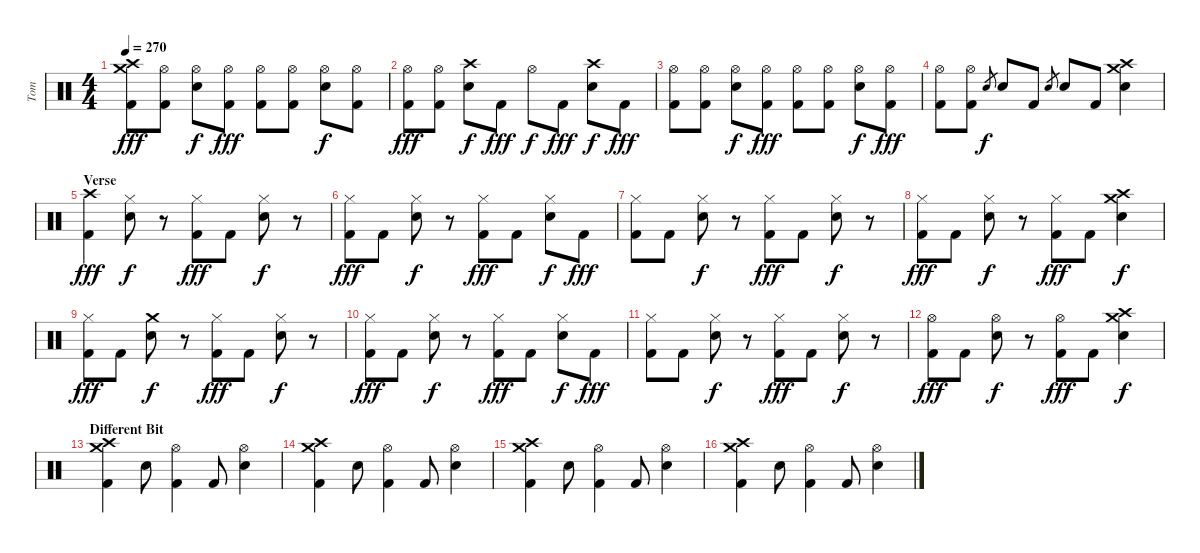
\track ("Tom" "Tom") {instrument percussion}
\staff {score}
\articulation defaults
\ts (4 4)
\tempo 270
\clef neutral
\ks c
("Kick (hit) 2" "Crash medium (hit)" "Crash high (hit)").8{dy fff} ("Kick (hit) 2" "Hi-Hat (open)").8 ("Electric Snare (hit)" "Hi-Hat (open)").8{dy f} ("Kick (hit) 2" "Hi-Hat (open)").8{dy fff} ("Kick (hit) 2" "Hi-Hat (open)").8 ("Kick (hit) 2" "Hi-Hat (open)").8 ("Electric Snare (hit)" "Hi-Hat (open)").8{dy f} ("Kick (hit) 2" "Hi-Hat (open)").8 |
("Kick (hit) 2" "Hi-Hat (open)").8{dy fff} ("Kick (hit) 2" "Hi-Hat (open)").8 ("Electric Snare (hit)" "Crash high (hit)").8{dy f} "Kick (hit) 2".8{dy fff} "Hi-Hat (open)".8{dy f} "Kick (hit) 2".8{dy fff} ("Electric Snare (hit)" "Crash high (hit)").8{dy f} "Kick (hit) 2".8{dy fff} |
("Kick (hit) 2" "Hi-Hat (open)").8 ("Kick (hit) 2" "Hi-Hat (open)").8 ("Electric Snare (hit)" "Hi-Hat (open)").8{dy f} ("Kick (hit) 2" "Hi-Hat (open)").8{dy fff} ("Kick (hit) 2" "Hi-Hat (open)").8 ("Kick (hit) 2" "Hi-Hat (open)").8 ("Electric Snare (hit)" "Hi-Hat (open)").8{dy f} ("Kick (hit) 2" "Hi-Hat (open)").8{dy fff} |
("Kick (hit) 2" "Hi-Hat (open)").8 ("Kick (hit) 2" "Hi-Hat (open)").8 "Electric Snare (hit)".8{gr dy f} "Electric Snare (hit)".8 "Kick (hit) 2".8 "Electric Snare (hit)".8{gr} "Electric Snare (hit)".8 "Kick (hit) 2".8 ("Electric Snare (hit)" "Crash high (hit)" "Crash medium (hit)").4 |
\section ("" "Verse")
("Crash high (hit)" "Kick (hit) 2").4{dy fff} ("Electric Snare (hit)" "Hi-Hat (closed)").8{dy f} r.8 ("Kick (hit) 2" "Hi-Hat (closed)").8{dy fff} "Kick (hit) 2".8 ("Electric Snare (hit)" "Hi-Hat (closed)").8{dy f} r.8 |
("Kick (hit) 2" "Hi-Hat (closed)").8{dy fff} "Kick (hit) 2".8 ("Electric Snare (hit)" "Hi-Hat (closed)").8{dy f} r.8 ("Kick (hit) 2" "Hi-Hat (closed)").8{dy fff} "Kick (hit) 2".8 ("Electric Snare (hit)" "Hi-Hat (closed)").8{dy f} "Kick (hit) 2".8{dy fff} |
("Kick (hit) 2" "Hi-Hat (closed)").8 "Kick (hit) 2".8 ("Electric Snare (hit)" "Hi-Hat (closed)").8{dy f} r.8 ("Kick (hit) 2" "Hi-Hat (closed)").8{dy fff} "Kick (hit) 2".8 ("Electric Snare (hit)" "Hi-Hat (closed)").8{dy f} r.8 |
("Kick (hit) 2" "Hi-Hat (closed)").8{dy fff} "Kick (hit) 2".8 ("Electric Snare (hit)" "Hi-Hat (closed)").8{dy f} r.8 ("Kick (hit) 2" "Hi-Hat (closed)").8{dy fff} "Kick (hit) 2".8 ("Electric Snare (hit)" "Crash medium (hit)" "Crash high (hit)").4{dy f} |
("Kick (hit) 2" "Hi-Hat (closed)").8{dy fff} "Kick (hit) 2".8 ("Crash medium (hit)" "Electric Snare (hit)").8{dy f} r.8 ("Kick (hit) 2" "Hi-Hat (closed)").8{dy fff} "Kick (hit) 2".8 ("Electric Snare (hit)" "Hi-Hat (closed)").8{dy f} r.8 |
("Kick (hit) 2" "Hi-Hat (closed)").8{dy fff} "Kick (hit) 2".8 ("Electric Snare (hit)" "Hi-Hat (closed)").8{dy f} r.8 ("Kick (hit) 2" "Hi-Hat (closed)").8{dy fff} "Kick (hit) 2".8 ("Electric Snare (hit)" "Hi-Hat (closed)").8{dy f} "Kick (hit) 2".8{dy fff} |
("Kick (hit) 2" "Hi-Hat (closed)").8 "Kick (hit) 2".8 ("Electric Snare (hit)" "Hi-Hat (closed)").8{dy f} r.8 ("Kick (hit) 2" "Hi-Hat (closed)").8{dy fff} "Kick (hit) 2".8 ("Electric Snare (hit)" "Hi-Hat (closed)").8{dy f} r.8 |
("Kick (hit) 2" "Hi-Hat (open)").8{dy fff} "Kick (hit) 2".8 ("Electric Snare (hit)" "Hi-Hat (open)").8{dy f} r.8 ("Kick (hit) 2" "Hi-Hat (open)").8{dy fff} "Kick (hit) 2".8 ("Electric Snare (hit)" "Crash medium (hit)" "Crash high (hit)").4{dy f} |
\section ("" "Different Bit")
("Kick (hit) 2" "Crash medium (hit)" "Crash high (hit)").4 "Electric Snare (hit)".8 ("Kick (hit) 2" "Hi-Hat (open)").4 "Kick (hit) 2".8 ("Electric Snare (hit)" "Hi-Hat (open)").4 |
("Kick (hit) 2" "Crash medium (hit)" "Crash high (hit)").4 "Electric Snare (hit)".8 ("Kick (hit) 2" "Hi-Hat (open)").4 "Kick (hit) 2".8 ("Electric Snare (hit)" "Hi-Hat (open)").4 |
("Kick (hit) 2" "Crash medium (hit)" "Crash high (hit)").4 "Electric Snare (hit)".8 ("Kick (hit) 2" "Hi-Hat (open)").4 "Kick (hit) 2".8 ("Electric Snare (hit)" "Hi-Hat (open)").4 |
("Kick (hit) 2" "Crash medium (hit)" "Crash high (hit)").4 "Electric Snare (hit)".8 ("Kick (hit) 2" "Hi-Hat (open)").4 "Kick (hit) 2".8 ("Electric Snare (hit)" "Hi-Hat (open)").4
